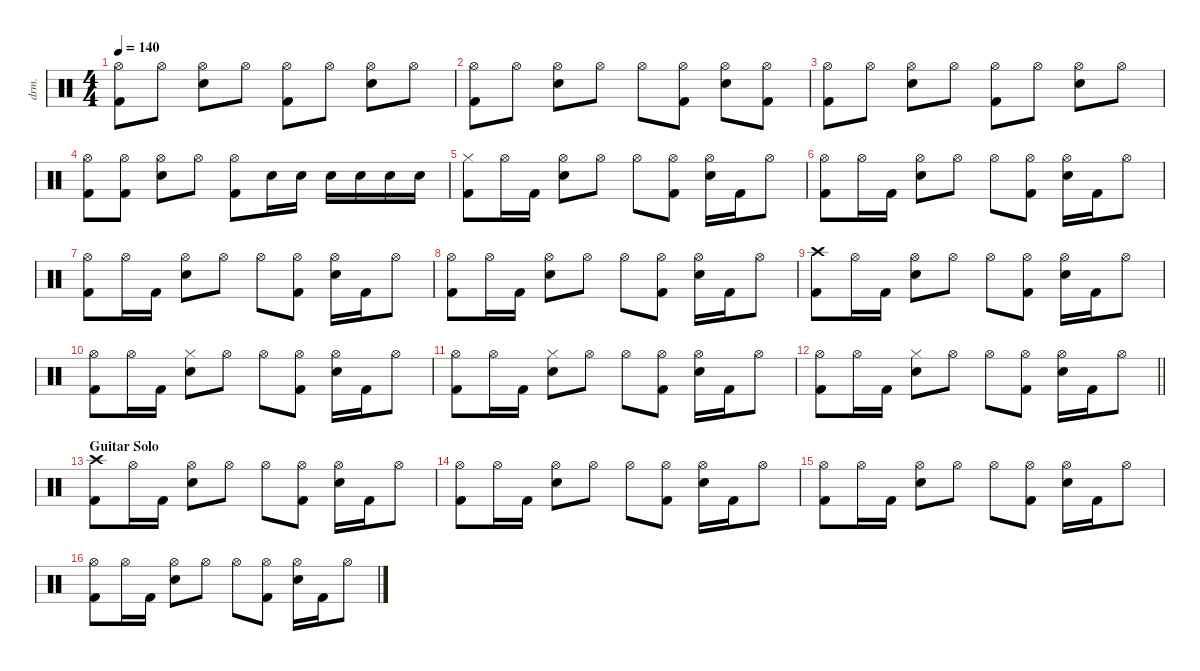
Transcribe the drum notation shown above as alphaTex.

\defaultSystemsLayout 4
\hideDynamics
\bracketExtendMode nobrackets
\otherSystemsTrackNameOrientation horizontal
\track ("Drums" "drm.") {defaultSystemsLayout 4 instrument percussion}
\staff {score}
\articulation defaults
\ts (4 4)
\tempo 140
\clef neutral
\ks c
("Hi-Hat (open)" "Kick (hit) 2").8{dy mf beam Down} "Hi-Hat (open)".8{beam Down} ("Hi-Hat (open)" "Snare (hit) 2").8{beam Down} "Hi-Hat (open)".8{beam Down} ("Hi-Hat (open)" "Kick (hit) 2").8{beam Down} "Hi-Hat (open)".8{beam Down} ("Hi-Hat (open)" "Snare (hit) 2").8{beam Down} "Hi-Hat (open)".8{beam Down} |
("Hi-Hat (open)" "Kick (hit) 2").8{beam Down} "Hi-Hat (open)".8{beam Down} ("Hi-Hat (open)" "Snare (hit) 2").8{beam Down} "Hi-Hat (open)".8{beam Down} "Hi-Hat (open)".8{beam Down} ("Hi-Hat (open)" "Kick (hit) 2").8{beam Down} ("Hi-Hat (open)" "Snare (hit) 2").8{beam Down} ("Hi-Hat (open)" "Kick (hit) 2").8{beam Down} |
("Hi-Hat (open)" "Kick (hit) 2").8{beam Down} "Hi-Hat (open)".8{beam Down} ("Hi-Hat (open)" "Snare (hit) 2").8{beam Down} "Hi-Hat (open)".8{beam Down} ("Hi-Hat (open)" "Kick (hit) 2").8{beam Down} "Hi-Hat (open)".8{beam Down} ("Hi-Hat (open)" "Snare (hit) 2").8{beam Down} "Hi-Hat (open)".8{beam Down} |
("Hi-Hat (open)" "Kick (hit) 2").8{beam Down} ("Hi-Hat (open)" "Kick (hit) 2").8{beam Down} ("Hi-Hat (open)" "Snare (hit) 2").8{beam Down} "Hi-Hat (open)".8{beam Down} ("Hi-Hat (open)" "Kick (hit) 2").8{beam Down} "Snare (hit) 2".16{dy f beam Down} "Snare (hit) 2".16{beam Down} "Snare (hit) 2".16{beam Down} "Snare (hit) 2".16{beam Down} "Snare (hit) 2".16{beam Down} "Snare (hit) 2".16{beam Down} |
("Hi-Hat (closed)" "Kick (hit) 2").8{beam Down} "Hi-Hat (open)".16{dy mf beam Down} "Kick (hit) 2".16{dy f beam Down} ("Hi-Hat (open)" "Snare (hit) 2").8{dy mf beam Down} "Hi-Hat (open)".8{beam Down} "Hi-Hat (open)".8{beam Down} ("Hi-Hat (open)" "Kick (hit) 2").8{beam Down} ("Hi-Hat (open)" "Snare (hit) 2").16{beam Down} "Kick (hit) 2".16{dy f beam Down} "Hi-Hat (open)".8{dy mf beam Down} |
("Hi-Hat (open)" "Kick (hit) 2").8{beam Down} "Hi-Hat (open)".16{beam Down} "Kick (hit) 2".16{dy f beam Down} ("Hi-Hat (open)" "Snare (hit) 2").8{dy mf beam Down} "Hi-Hat (open)".8{beam Down} "Hi-Hat (open)".8{beam Down} ("Hi-Hat (open)" "Kick (hit) 2").8{beam Down} ("Hi-Hat (open)" "Snare (hit) 2").16{beam Down} "Kick (hit) 2".16{dy f beam Down} "Hi-Hat (open)".8{dy mf beam Down} |
("Hi-Hat (open)" "Kick (hit) 2").8{beam Down} "Hi-Hat (open)".16{beam Down} "Kick (hit) 2".16{dy f beam Down} ("Hi-Hat (open)" "Snare (hit) 2").8{dy mf beam Down} "Hi-Hat (open)".8{beam Down} "Hi-Hat (open)".8{beam Down} ("Hi-Hat (open)" "Kick (hit) 2").8{beam Down} ("Hi-Hat (open)" "Snare (hit) 2").16{beam Down} "Kick (hit) 2".16{dy f beam Down} "Hi-Hat (open)".8{dy mf beam Down} |
("Hi-Hat (open)" "Kick (hit) 2").8{beam Down} "Hi-Hat (open)".16{beam Down} "Kick (hit) 2".16{dy f beam Down} ("Hi-Hat (open)" "Snare (hit) 2").8{dy mf beam Down} "Hi-Hat (open)".8{beam Down} "Hi-Hat (open)".8{beam Down} ("Hi-Hat (open)" "Kick (hit) 2").8{beam Down} ("Hi-Hat (open)" "Snare (hit) 2").16{beam Down} "Kick (hit) 2".16{dy f beam Down} "Hi-Hat (open)".8{dy mf beam Down} |
("Crash high (hit)" "Kick (hit) 2").8{dy f beam Down} "Hi-Hat (open)".16{dy mf beam Down} "Kick (hit) 2".16{dy f beam Down} ("Hi-Hat (open)" "Snare (hit) 2").8{dy mf beam Down} "Hi-Hat (open)".8{beam Down} "Hi-Hat (open)".8{beam Down} ("Hi-Hat (open)" "Kick (hit) 2").8{beam Down} ("Hi-Hat (open)" "Snare (hit) 2").16{beam Down} "Kick (hit) 2".16{dy f beam Down} "Hi-Hat (open)".8{dy mf beam Down} |
("Hi-Hat (open)" "Kick (hit) 2").8{beam Down} "Hi-Hat (open)".16{beam Down} "Kick (hit) 2".16{dy f beam Down} ("Hi-Hat (closed)" "Snare (hit) 2").8{beam Down} "Hi-Hat (open)".8{dy mf beam Down} "Hi-Hat (open)".8{beam Down} ("Hi-Hat (open)" "Kick (hit) 2").8{beam Down} ("Hi-Hat (open)" "Snare (hit) 2").16{beam Down} "Kick (hit) 2".16{dy f beam Down} "Hi-Hat (open)".8{dy mf beam Down} |
("Hi-Hat (open)" "Kick (hit) 2").8{beam Down} "Hi-Hat (open)".16{beam Down} "Kick (hit) 2".16{dy f beam Down} ("Hi-Hat (closed)" "Snare (hit) 2").8{beam Down} "Hi-Hat (open)".8{dy mf beam Down} "Hi-Hat (open)".8{beam Down} ("Hi-Hat (open)" "Kick (hit) 2").8{beam Down} ("Hi-Hat (open)" "Snare (hit) 2").16{beam Down} "Kick (hit) 2".16{dy f beam Down} "Hi-Hat (open)".8{dy mf beam Down} |
\barLineRight lightlight
("Hi-Hat (open)" "Kick (hit) 2").8{beam Down} "Hi-Hat (open)".16{beam Down} "Kick (hit) 2".16{dy f beam Down} ("Hi-Hat (closed)" "Snare (hit) 2").8{beam Down} "Hi-Hat (open)".8{dy mf beam Down} "Hi-Hat (open)".8{beam Down} ("Hi-Hat (open)" "Kick (hit) 2").8{beam Down} ("Hi-Hat (open)" "Snare (hit) 2").16{beam Down} "Kick (hit) 2".16{dy f beam Down} "Hi-Hat (open)".8{dy mf beam Down} |
\section ("" "Guitar Solo")
("Crash high (hit)" "Kick (hit) 2").8{dy f beam Down} "Hi-Hat (open)".16{dy mf beam Down} "Kick (hit) 2".16{dy f beam Down} ("Hi-Hat (open)" "Snare (hit) 2").8{dy mf beam Down} "Hi-Hat (open)".8{beam Down} "Hi-Hat (open)".8{beam Down} ("Hi-Hat (open)" "Kick (hit) 2").8{beam Down} ("Hi-Hat (open)" "Snare (hit) 2").16{beam Down} "Kick (hit) 2".16{dy f beam Down} "Hi-Hat (open)".8{dy mf beam Down} |
("Hi-Hat (open)" "Kick (hit) 2").8{beam Down} "Hi-Hat (open)".16{beam Down} "Kick (hit) 2".16{dy f beam Down} ("Hi-Hat (open)" "Snare (hit) 2").8{dy mf beam Down} "Hi-Hat (open)".8{beam Down} "Hi-Hat (open)".8{beam Down} ("Hi-Hat (open)" "Kick (hit) 2").8{beam Down} ("Hi-Hat (open)" "Snare (hit) 2").16{beam Down} "Kick (hit) 2".16{dy f beam Down} "Hi-Hat (open)".8{dy mf beam Down} |
("Hi-Hat (open)" "Kick (hit) 2").8{beam Down} "Hi-Hat (open)".16{beam Down} "Kick (hit) 2".16{dy f beam Down} ("Hi-Hat (open)" "Snare (hit) 2").8{dy mf beam Down} "Hi-Hat (open)".8{beam Down} "Hi-Hat (open)".8{beam Down} ("Hi-Hat (open)" "Kick (hit) 2").8{beam Down} ("Hi-Hat (open)" "Snare (hit) 2").16{beam Down} "Kick (hit) 2".16{dy f beam Down} "Hi-Hat (open)".8{dy mf beam Down} |
("Hi-Hat (open)" "Kick (hit) 2").8{beam Down} "Hi-Hat (open)".16{beam Down} "Kick (hit) 2".16{dy f beam Down} ("Hi-Hat (open)" "Snare (hit) 2").8{dy mf beam Down} "Hi-Hat (open)".8{beam Down} "Hi-Hat (open)".8{beam Down} ("Hi-Hat (open)" "Kick (hit) 2").8{beam Down} ("Hi-Hat (open)" "Snare (hit) 2").16{beam Down} "Kick (hit) 2".16{dy f beam Down} "Hi-Hat (open)".8{dy mf beam Down}
